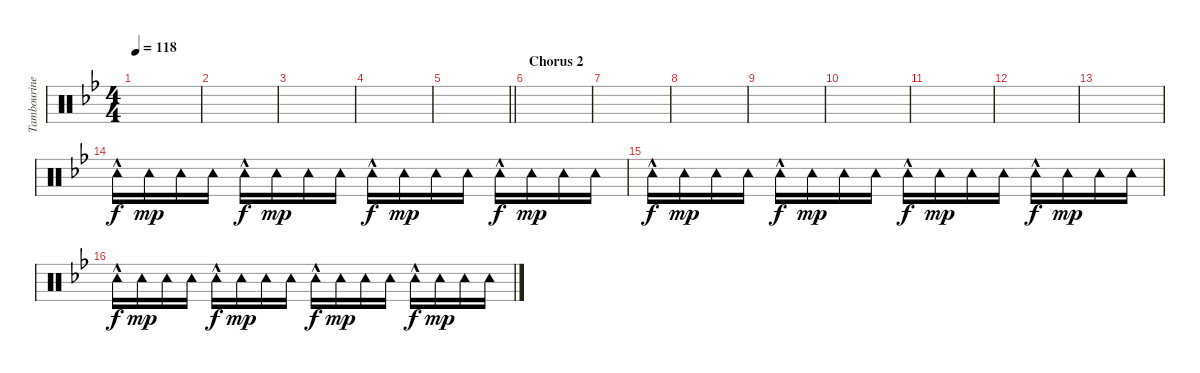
\track ("Tambourine" "Tambourine") {instrument percussion}
\staff {score}
\articulation defaults
\ts (4 4)
\tempo 118
\clef neutral
\ks bb
|
|
|
|
\barLineRight lightlight
|
\section ("" "Chorus 2")
|
|
|
|
|
|
|
|
"Tambourine (hit)"{hac}.16 "Tambourine (hit)".16{dy mp} "Tambourine (hit)".16 "Tambourine (hit)".16 "Tambourine (hit)"{hac}.16{dy f} "Tambourine (hit)".16{dy mp} "Tambourine (hit)".16 "Tambourine (hit)".16 "Tambourine (hit)"{hac}.16{dy f} "Tambourine (hit)".16{dy mp} "Tambourine (hit)".16 "Tambourine (hit)".16 "Tambourine (hit)"{hac}.16{dy f} "Tambourine (hit)".16{dy mp} "Tambourine (hit)".16 "Tambourine (hit)".16 |
"Tambourine (hit)"{hac}.16{dy f} "Tambourine (hit)".16{dy mp} "Tambourine (hit)".16 "Tambourine (hit)".16 "Tambourine (hit)"{hac}.16{dy f} "Tambourine (hit)".16{dy mp} "Tambourine (hit)".16 "Tambourine (hit)".16 "Tambourine (hit)"{hac}.16{dy f} "Tambourine (hit)".16{dy mp} "Tambourine (hit)".16 "Tambourine (hit)".16 "Tambourine (hit)"{hac}.16{dy f} "Tambourine (hit)".16{dy mp} "Tambourine (hit)".16 "Tambourine (hit)".16 |
"Tambourine (hit)"{hac}.16{dy f} "Tambourine (hit)".16{dy mp} "Tambourine (hit)".16 "Tambourine (hit)".16 "Tambourine (hit)"{hac}.16{dy f} "Tambourine (hit)".16{dy mp} "Tambourine (hit)".16 "Tambourine (hit)".16 "Tambourine (hit)"{hac}.16{dy f} "Tambourine (hit)".16{dy mp} "Tambourine (hit)".16 "Tambourine (hit)".16 "Tambourine (hit)"{hac}.16{dy f} "Tambourine (hit)".16{dy mp} "Tambourine (hit)".16 "Tambourine (hit)".16
